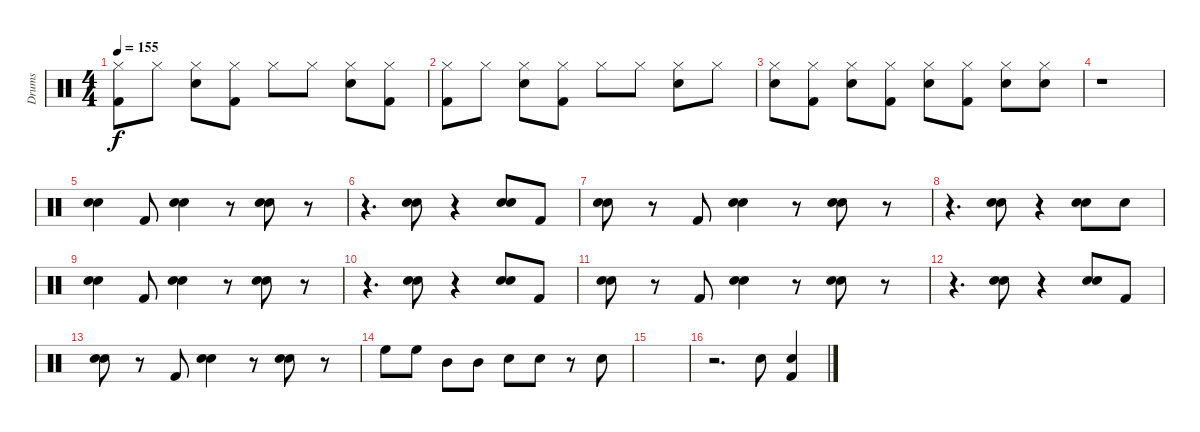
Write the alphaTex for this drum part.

\track ("Drums" "Drums") {instrument percussion}
\staff {score}
\articulation defaults
\ts (4 4)
\tempo 155
\clef neutral
\ks c
("Hi-Hat (closed)" "Kick (hit) 2").8{dy f} "Hi-Hat (closed)".8 ("Hi-Hat (closed)" "Snare (hit) 2").8 ("Hi-Hat (closed)" "Kick (hit) 2").8 "Hi-Hat (closed)".8 "Hi-Hat (closed)".8 ("Hi-Hat (closed)" "Snare (hit) 2").8 ("Hi-Hat (closed)" "Kick (hit) 2").8 |
("Hi-Hat (closed)" "Kick (hit) 2").8 "Hi-Hat (closed)".8 ("Hi-Hat (closed)" "Snare (hit) 2").8 ("Hi-Hat (closed)" "Kick (hit) 2").8 "Hi-Hat (closed)".8 "Hi-Hat (closed)".8 ("Hi-Hat (closed)" "Snare (hit) 2").8 "Hi-Hat (closed)".8 |
("Hi-Hat (closed)" "Snare (hit) 2").8 ("Hi-Hat (closed)" "Kick (hit) 2").8 ("Hi-Hat (closed)" "Snare (hit) 2").8 ("Hi-Hat (closed)" "Kick (hit) 2").8 ("Hi-Hat (closed)" "Snare (hit) 2").8 ("Hi-Hat (closed)" "Kick (hit) 2").8 ("Hi-Hat (closed)" "Snare (hit) 2").8 ("Hi-Hat (closed)" "Snare (hit) 2").8 |
r.1 |
("Snare (hit) 2" "Hand Clap (hit)").4 "Kick (hit) 2".8 ("Snare (hit) 2" "Hand Clap (hit)").4 r.8 ("Snare (hit) 2" "Hand Clap (hit)").8 r.8 |
r.4{d} ("Snare (hit) 2" "Hand Clap (hit)").8 r.4 ("Snare (hit) 2" "Hand Clap (hit)").8 "Kick (hit) 2".8 |
("Snare (hit) 2" "Hand Clap (hit)").8 r.8 "Kick (hit) 2".8 ("Snare (hit) 2" "Hand Clap (hit)").4 r.8 ("Snare (hit) 2" "Hand Clap (hit)").8 r.8 |
r.4{d} ("Snare (hit) 2" "Hand Clap (hit)").8 r.4 ("Snare (hit) 2" "Hand Clap (hit)").8 "Hand Clap (hit)".8 |
("Snare (hit) 2" "Hand Clap (hit)").4 "Kick (hit) 2".8 ("Snare (hit) 2" "Hand Clap (hit)").4 r.8 ("Snare (hit) 2" "Hand Clap (hit)").8 r.8 |
r.4{d} ("Snare (hit) 2" "Hand Clap (hit)").8 r.4 ("Snare (hit) 2" "Hand Clap (hit)").8 "Kick (hit) 2".8 |
("Snare (hit) 2" "Hand Clap (hit)").8 r.8 "Kick (hit) 2".8 ("Snare (hit) 2" "Hand Clap (hit)").4 r.8 ("Snare (hit) 2" "Hand Clap (hit)").8 r.8 |
r.4{d} ("Snare (hit) 2" "Hand Clap (hit)").8 r.4 ("Snare (hit) 2" "Hand Clap (hit)").8 "Kick (hit) 2".8 |
("Snare (hit) 2" "Hand Clap (hit)").8 r.8 "Kick (hit) 2".8 ("Snare (hit) 2" "Hand Clap (hit)").4 r.8 ("Snare (hit) 2" "Hand Clap (hit)").8 r.8 |
"High Floor Tom (hit)".8 "High Floor Tom (hit)".8 "Mid Tom (hit)".8 "Mid Tom (hit)".8 "Snare (hit) 2".8 "Snare (hit) 2".8 r.8 "Snare (hit) 2".8 |
|
r.2{d} "Snare (hit) 2".8 ("Snare (hit) 2" "Kick (hit) 2").4
